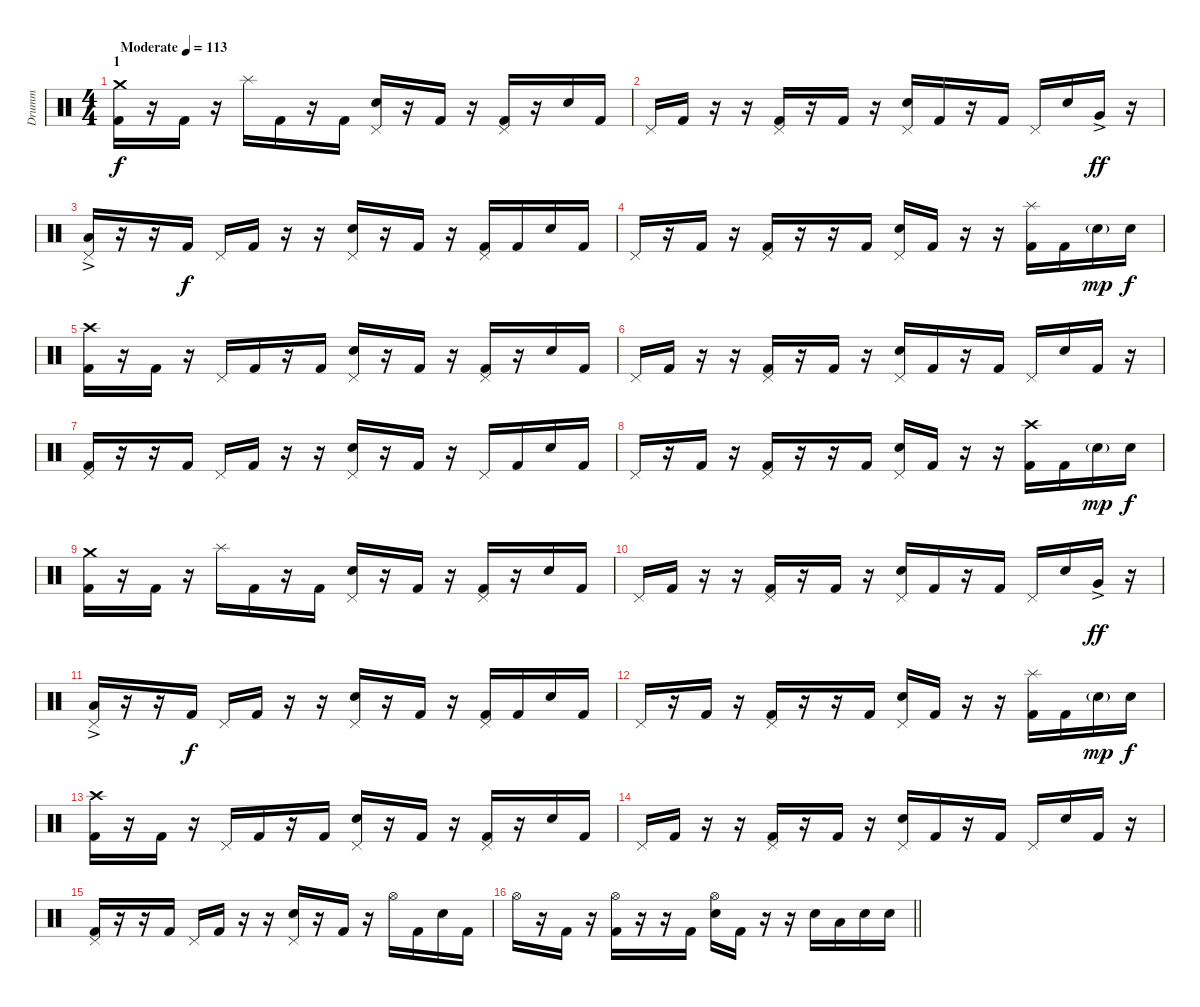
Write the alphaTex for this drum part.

\track ("Drumm" "Drumm") {instrument percussion}
\staff {score}
\articulation defaults
\ts (4 4)
\section ("" "1")
\tempo (113 "Moderate")
\clef neutral
\ks c
("Crash medium (hit)" "Kick (hit) 2").16{dy f} r.16 "Kick (hit) 2".16 r.16 "Splash (hit)".16 "Kick (hit) 2".16 r.16 "Kick (hit) 2".16 ("Pedal Hi-Hat (hit)" "Electric Snare (hit)").16 r.16 "Kick (hit) 2".16 r.16 ("Pedal Hi-Hat (hit)" "Kick (hit) 2").16 r.16 "Electric Snare (hit)".16 "Kick (hit) 2".16 |
"Pedal Hi-Hat (hit)".16 "Kick (hit) 2".16 r.16 r.16 ("Pedal Hi-Hat (hit)" "Kick (hit) 2").16 r.16 "Kick (hit) 2".16 r.16 ("Pedal Hi-Hat (hit)" "Electric Snare (hit)").16 "Kick (hit) 2".16 r.16 "Kick (hit) 2".16 "Pedal Hi-Hat (hit)".16 "Electric Snare (hit)".16 "Very Low Tom (hit)"{ac}.16{dy ff} r.16 |
("Pedal Hi-Hat (hit)" "Low Floor Tom (hit)"{ac}).16 r.16 r.16 "Kick (hit) 2".16{dy f} "Pedal Hi-Hat (hit)".16 "Kick (hit) 2".16 r.16 r.16 ("Pedal Hi-Hat (hit)" "Electric Snare (hit)").16 r.16 "Kick (hit) 2".16 r.16 ("Pedal Hi-Hat (hit)" "Kick (hit) 2").16 "Kick (hit) 2".16 "Electric Snare (hit)".16 "Kick (hit) 2".16 |
"Pedal Hi-Hat (hit)".16 r.16 "Kick (hit) 2".16 r.16 ("Pedal Hi-Hat (hit)" "Kick (hit) 2").16 r.16 r.16 "Kick (hit) 2".16 ("Pedal Hi-Hat (hit)" "Electric Snare (hit)").16 "Kick (hit) 2".16 r.16 r.16 ("Splash (hit)" "Kick (hit) 2").16 "Kick (hit) 2".16 "Electric Snare (hit)"{g}.16{dy mp} "Electric Snare (hit)".16{dy f} |
("Crash high (hit)" "Kick (hit) 2").16 r.16 "Kick (hit) 2".16 r.16 "Pedal Hi-Hat (hit)".16 "Kick (hit) 2".16 r.16 "Kick (hit) 2".16 ("Pedal Hi-Hat (hit)" "Electric Snare (hit)").16 r.16 "Kick (hit) 2".16 r.16 ("Pedal Hi-Hat (hit)" "Kick (hit) 2").16 r.16 "Electric Snare (hit)".16 "Kick (hit) 2".16 |
"Pedal Hi-Hat (hit)".16 "Kick (hit) 2".16 r.16 r.16 ("Pedal Hi-Hat (hit)" "Kick (hit) 2").16 r.16 "Kick (hit) 2".16 r.16 ("Pedal Hi-Hat (hit)" "Electric Snare (hit)").16 "Kick (hit) 2".16 r.16 "Kick (hit) 2".16 "Pedal Hi-Hat (hit)".16 "Electric Snare (hit)".16 "Kick (hit) 2".16 r.16 |
("Pedal Hi-Hat (hit)" "Kick (hit) 2").16 r.16 r.16 "Kick (hit) 2".16 "Pedal Hi-Hat (hit)".16 "Kick (hit) 2".16 r.16 r.16 ("Pedal Hi-Hat (hit)" "Electric Snare (hit)").16 r.16 "Kick (hit) 2".16 r.16 "Pedal Hi-Hat (hit)".16 "Kick (hit) 2".16 "Electric Snare (hit)".16 "Kick (hit) 2".16 |
"Pedal Hi-Hat (hit)".16 r.16 "Kick (hit) 2".16 r.16 ("Pedal Hi-Hat (hit)" "Kick (hit) 2").16 r.16 r.16 "Kick (hit) 2".16 ("Pedal Hi-Hat (hit)" "Electric Snare (hit)").16 "Kick (hit) 2".16 r.16 r.16 ("Crash high (hit)" "Kick (hit) 2").16 "Kick (hit) 2".16 "Electric Snare (hit)"{g}.16{dy mp} "Electric Snare (hit)".16{dy f} |
("Crash medium (hit)" "Kick (hit) 2").16 r.16 "Kick (hit) 2".16 r.16 "Splash (hit)".16 "Kick (hit) 2".16 r.16 "Kick (hit) 2".16 ("Pedal Hi-Hat (hit)" "Electric Snare (hit)").16 r.16 "Kick (hit) 2".16 r.16 ("Pedal Hi-Hat (hit)" "Kick (hit) 2").16 r.16 "Electric Snare (hit)".16 "Kick (hit) 2".16 |
"Pedal Hi-Hat (hit)".16 "Kick (hit) 2".16 r.16 r.16 ("Pedal Hi-Hat (hit)" "Kick (hit) 2").16 r.16 "Kick (hit) 2".16 r.16 ("Pedal Hi-Hat (hit)" "Electric Snare (hit)").16 "Kick (hit) 2".16 r.16 "Kick (hit) 2".16 "Pedal Hi-Hat (hit)".16 "Electric Snare (hit)".16 "Very Low Tom (hit)"{ac}.16{dy ff} r.16 |
("Pedal Hi-Hat (hit)" "Low Floor Tom (hit)"{ac}).16 r.16 r.16 "Kick (hit) 2".16{dy f} "Pedal Hi-Hat (hit)".16 "Kick (hit) 2".16 r.16 r.16 ("Pedal Hi-Hat (hit)" "Electric Snare (hit)").16 r.16 "Kick (hit) 2".16 r.16 ("Pedal Hi-Hat (hit)" "Kick (hit) 2").16 "Kick (hit) 2".16 "Electric Snare (hit)".16 "Kick (hit) 2".16 |
"Pedal Hi-Hat (hit)".16 r.16 "Kick (hit) 2".16 r.16 ("Pedal Hi-Hat (hit)" "Kick (hit) 2").16 r.16 r.16 "Kick (hit) 2".16 ("Pedal Hi-Hat (hit)" "Electric Snare (hit)").16 "Kick (hit) 2".16 r.16 r.16 ("Splash (hit)" "Kick (hit) 2").16 "Kick (hit) 2".16 "Electric Snare (hit)"{g}.16{dy mp} "Electric Snare (hit)".16{dy f} |
("Crash high (hit)" "Kick (hit) 2").16 r.16 "Kick (hit) 2".16 r.16 "Pedal Hi-Hat (hit)".16 "Kick (hit) 2".16 r.16 "Kick (hit) 2".16 ("Pedal Hi-Hat (hit)" "Electric Snare (hit)").16 r.16 "Kick (hit) 2".16 r.16 ("Pedal Hi-Hat (hit)" "Kick (hit) 2").16 r.16 "Electric Snare (hit)".16 "Kick (hit) 2".16 |
"Pedal Hi-Hat (hit)".16 "Kick (hit) 2".16 r.16 r.16 ("Pedal Hi-Hat (hit)" "Kick (hit) 2").16 r.16 "Kick (hit) 2".16 r.16 ("Pedal Hi-Hat (hit)" "Electric Snare (hit)").16 "Kick (hit) 2".16 r.16 "Kick (hit) 2".16 "Pedal Hi-Hat (hit)".16 "Electric Snare (hit)".16 "Kick (hit) 2".16 r.16 |
("Pedal Hi-Hat (hit)" "Kick (hit) 2").16 r.16 r.16 "Kick (hit) 2".16 "Pedal Hi-Hat (hit)".16 "Kick (hit) 2".16 r.16 r.16 ("Pedal Hi-Hat (hit)" "Electric Snare (hit)").16 r.16 "Kick (hit) 2".16 r.16 "Hi-Hat (open)".16 "Kick (hit) 2".16 "Electric Snare (hit)".16 "Kick (hit) 2".16 |
\barLineRight lightlight "Hi-Hat (open)".16
r.16 "Kick (hit) 2".16 r.16 ("Hi-Hat (open)" "Kick (hit) 2").16 r.16 r.16 "Kick (hit) 2".16 ("Hi-Hat (open)" "Electric Snare (hit)").16 "Kick (hit) 2".16 r.16 r.16 "Electric Snare (hit)".16 "Low Floor Tom (hit)".16 "Electric Snare (hit)".16 "Electric Snare (hit)".16
